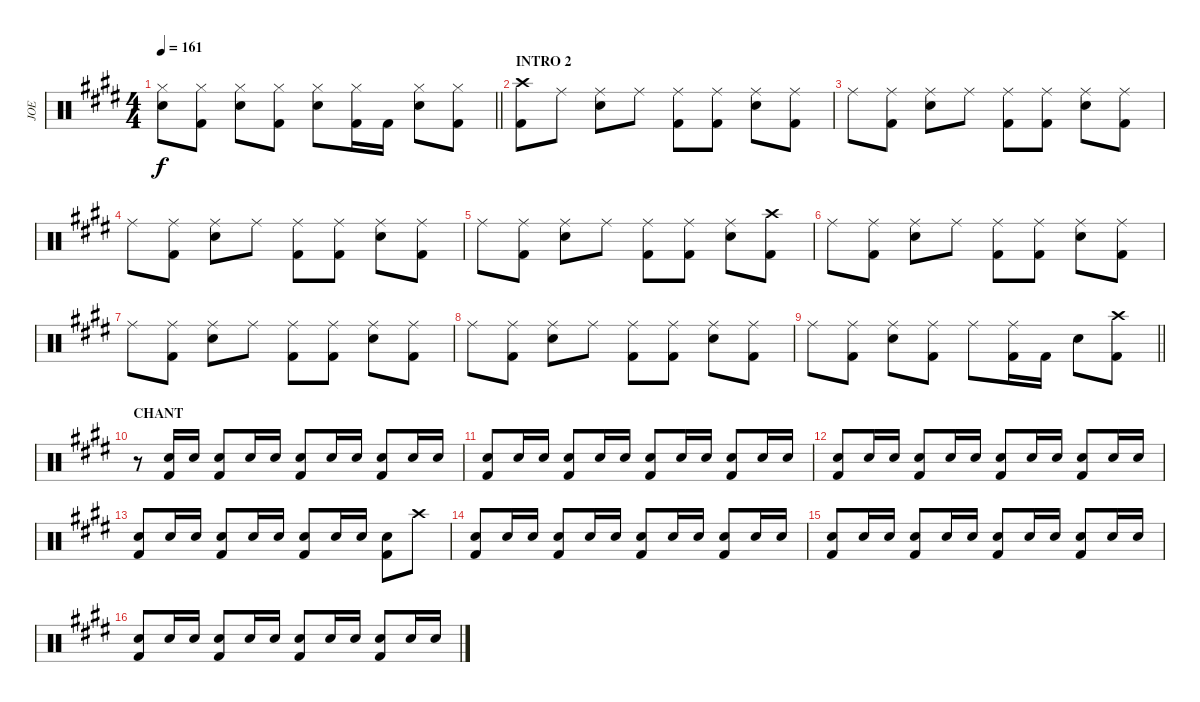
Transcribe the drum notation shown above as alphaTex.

\track ("JOE" "JOE") {instrument percussion}
\staff {score}
\articulation defaults
\ts (4 4)
\tempo 161
\clef neutral
\barLineRight lightlight
\ks e
("Hi-Hat (closed)" "Snare (hit) 2").8{dy f} ("Hi-Hat (closed)" "Kick (hit) 2").8 ("Hi-Hat (closed)" "Snare (hit) 2").8 ("Hi-Hat (closed)" "Kick (hit) 2").8 ("Hi-Hat (closed)" "Snare (hit) 2").8 ("Hi-Hat (closed)" "Kick (hit) 2").16 "Kick (hit) 2".16 ("Hi-Hat (closed)" "Snare (hit) 2").8 ("Hi-Hat (closed)" "Kick (hit) 2").8 |
\section ("" "INTRO 2")
("Crash high (hit)" "Kick (hit) 2").8 "Ride (middle)".8 ("Ride (middle)" "Snare (hit) 2").8 "Ride (middle)".8 ("Ride (middle)" "Kick (hit) 2").8 ("Ride (middle)" "Kick (hit) 2").8 ("Ride (middle)" "Snare (hit) 2").8 ("Ride (middle)" "Kick (hit) 2").8 |
"Ride (middle)".8 ("Ride (middle)" "Kick (hit) 2").8 ("Ride (middle)" "Snare (hit) 2").8 "Ride (middle)".8 ("Ride (middle)" "Kick (hit) 2").8 ("Ride (middle)" "Kick (hit) 2").8 ("Ride (middle)" "Snare (hit) 2").8 ("Ride (middle)" "Kick (hit) 2").8 |
"Ride (middle)".8 ("Ride (middle)" "Kick (hit) 2").8 ("Ride (middle)" "Snare (hit) 2").8 "Ride (middle)".8 ("Ride (middle)" "Kick (hit) 2").8 ("Ride (middle)" "Kick (hit) 2").8 ("Ride (middle)" "Snare (hit) 2").8 ("Ride (middle)" "Kick (hit) 2").8 |
"Ride (middle)".8 ("Ride (middle)" "Kick (hit) 2").8 ("Ride (middle)" "Snare (hit) 2").8 "Ride (middle)".8 ("Ride (middle)" "Kick (hit) 2").8 ("Ride (middle)" "Kick (hit) 2").8 ("Ride (middle)" "Snare (hit) 2").8 ("Crash high (hit)" "Kick (hit) 2").8 |
"Ride (middle)".8 ("Ride (middle)" "Kick (hit) 2").8 ("Ride (middle)" "Snare (hit) 2").8 "Ride (middle)".8 ("Ride (middle)" "Kick (hit) 2").8 ("Ride (middle)" "Kick (hit) 2").8 ("Ride (middle)" "Snare (hit) 2").8 ("Ride (middle)" "Kick (hit) 2").8 |
"Ride (middle)".8 ("Ride (middle)" "Kick (hit) 2").8 ("Ride (middle)" "Snare (hit) 2").8 "Ride (middle)".8 ("Ride (middle)" "Kick (hit) 2").8 ("Ride (middle)" "Kick (hit) 2").8 ("Ride (middle)" "Snare (hit) 2").8 ("Ride (middle)" "Kick (hit) 2").8 |
"Ride (middle)".8 ("Ride (middle)" "Kick (hit) 2").8 ("Ride (middle)" "Snare (hit) 2").8 "Ride (middle)".8 ("Ride (middle)" "Kick (hit) 2").8 ("Ride (middle)" "Kick (hit) 2").8 ("Ride (middle)" "Snare (hit) 2").8 ("Ride (middle)" "Kick (hit) 2").8 |
\barLineRight lightlight "Ride (middle)".8
("Ride (middle)" "Kick (hit) 2").8 ("Ride (middle)" "Snare (hit) 2").8 ("Ride (middle)" "Kick (hit) 2").8 "Ride (middle)".8 ("Ride (middle)" "Kick (hit) 2").16 "Kick (hit) 2".16 "Snare (hit) 2".8 ("Crash high (hit)" "Kick (hit) 2").8 |
\section ("" "CHANT")
r.8{volume 8} ("Snare (hit) 2" "Kick (hit) 2").16 "Snare (hit) 2".16 ("Snare (hit) 2" "Kick (hit) 2").8 "Snare (hit) 2".16 "Snare (hit) 2".16 ("Snare (hit) 2" "Kick (hit) 2").8 "Snare (hit) 2".16 "Snare (hit) 2".16 ("Snare (hit) 2" "Kick (hit) 2").8 "Snare (hit) 2".16 "Snare (hit) 2".16 |
("Snare (hit) 2" "Kick (hit) 2").8 "Snare (hit) 2".16 "Snare (hit) 2".16 ("Snare (hit) 2" "Kick (hit) 2").8 "Snare (hit) 2".16 "Snare (hit) 2".16 ("Snare (hit) 2" "Kick (hit) 2").8 "Snare (hit) 2".16 "Snare (hit) 2".16 ("Snare (hit) 2" "Kick (hit) 2").8 "Snare (hit) 2".16 "Snare (hit) 2".16 |
("Snare (hit) 2" "Kick (hit) 2").8 "Snare (hit) 2".16 "Snare (hit) 2".16 ("Snare (hit) 2" "Kick (hit) 2").8 "Snare (hit) 2".16 "Snare (hit) 2".16 ("Snare (hit) 2" "Kick (hit) 2").8 "Snare (hit) 2".16 "Snare (hit) 2".16 ("Snare (hit) 2" "Kick (hit) 2").8 "Snare (hit) 2".16 "Snare (hit) 2".16 |
("Snare (hit) 2" "Kick (hit) 2").8 "Snare (hit) 2".16 "Snare (hit) 2".16 ("Snare (hit) 2" "Kick (hit) 2").8 "Snare (hit) 2".16 "Snare (hit) 2".16 ("Snare (hit) 2" "Kick (hit) 2").8 "Snare (hit) 2".16 "Snare (hit) 2".16 ("Snare (hit) 2" "Kick (hit) 2").8 "Crash high (hit)".8 |
("Snare (hit) 2" "Kick (hit) 2").8 "Snare (hit) 2".16 "Snare (hit) 2".16 ("Snare (hit) 2" "Kick (hit) 2").8 "Snare (hit) 2".16 "Snare (hit) 2".16 ("Snare (hit) 2" "Kick (hit) 2").8 "Snare (hit) 2".16 "Snare (hit) 2".16 ("Snare (hit) 2" "Kick (hit) 2").8 "Snare (hit) 2".16 "Snare (hit) 2".16 |
("Snare (hit) 2" "Kick (hit) 2").8 "Snare (hit) 2".16 "Snare (hit) 2".16 ("Snare (hit) 2" "Kick (hit) 2").8 "Snare (hit) 2".16 "Snare (hit) 2".16 ("Snare (hit) 2" "Kick (hit) 2").8 "Snare (hit) 2".16 "Snare (hit) 2".16 ("Snare (hit) 2" "Kick (hit) 2").8 "Snare (hit) 2".16 "Snare (hit) 2".16 |
("Snare (hit) 2" "Kick (hit) 2").8 "Snare (hit) 2".16 "Snare (hit) 2".16 ("Snare (hit) 2" "Kick (hit) 2").8 "Snare (hit) 2".16 "Snare (hit) 2".16 ("Snare (hit) 2" "Kick (hit) 2").8 "Snare (hit) 2".16 "Snare (hit) 2".16 ("Snare (hit) 2" "Kick (hit) 2").8 "Snare (hit) 2".16 "Snare (hit) 2".16
